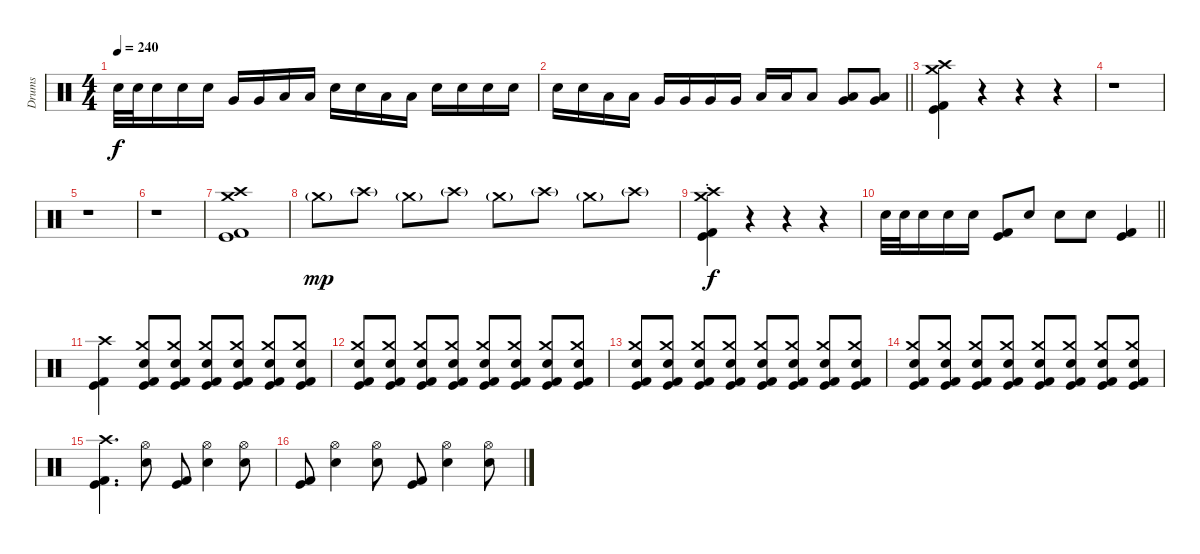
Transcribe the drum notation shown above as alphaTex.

\track ("Drums" "Drums") {instrument percussion}
\staff {score}
\articulation defaults
\ts (4 4)
\tempo 240
\clef neutral
\ks c "Electric Snare (hit)".32{dy f} "Electric Snare (hit)".32 "Electric Snare (hit)".16 "Electric Snare (hit)".16 "Electric Snare (hit)".16 "Very Low Tom (hit)".16 "Very Low Tom (hit)".16 "Low Tom (hit)".16 "Low Tom (hit)".16 "Electric Snare (hit)".16 "Electric Snare (hit)".16 "Low Tom (hit)".16 "Low Tom (hit)".16 "Electric Snare (hit)".16 "Electric Snare (hit)".16 "Electric Snare (hit)".16 "Electric Snare (hit)".16
|
\barLineRight lightlight "Electric Snare (hit)".16 "Electric Snare (hit)".16 "Low Tom (hit)".16 "Low Tom (hit)".16 "Very Low Tom (hit)".16 "Very Low Tom (hit)".16 "Very Low Tom (hit)".16 "Very Low Tom (hit)".16 "Low Tom (hit)".16 "Low Tom (hit)".16 "Low Floor Tom (hit)".8
("Very Low Tom (hit)" "Low Floor Tom (hit)").8 ("Very Low Tom (hit)" "Low Floor Tom (hit)").8 |
\section ("" "")
("Crash medium (hit)" "Crash high (hit)" "Kick (hit)" "Kick (hit) 2").4 r.4{volume 0} r.4 r.4 |
r.1{volume 16} |
r.1 |
r.1 |
("Crash high (hit)" "Crash medium (hit)" "Kick (hit)" "Kick (hit) 2").1 |
"Crash medium (hit)"{g}.8{dy mp} "Crash high (hit)"{g}.8 "Crash medium (hit)"{g}.8 "Crash high (hit)"{g}.8 "Crash medium (hit)"{g}.8 "Crash high (hit)"{g}.8 "Crash medium (hit)"{g}.8 "Crash high (hit)"{g}.8 |
("Crash high (hit)"{st} "Crash medium (hit)"{st} "Kick (hit)" "Kick (hit) 2").4{dy f} r.4{volume 0} r.4 r.4 |
\barLineRight lightlight "Electric Snare (hit)".32{volume 16} "Electric Snare (hit)".32 "Electric Snare (hit)".16 "Electric Snare (hit)".16 "Electric Snare (hit)".16
("Kick (hit)" "Kick (hit) 2").8 "Electric Snare (hit)".8 "Electric Snare (hit)".8 "Electric Snare (hit)".8 ("Kick (hit)" "Kick (hit) 2").4 |
\section ("" "")
("Crash high (hit)" "Kick (hit)" "Kick (hit) 2").4 ("Crash medium (hit)" "Electric Snare (hit)" "Kick (hit)" "Kick (hit) 2").8 ("Crash medium (hit)" "Electric Snare (hit)" "Kick (hit)" "Kick (hit) 2").8 ("Crash medium (hit)" "Electric Snare (hit)" "Kick (hit)" "Kick (hit) 2").8 ("Crash medium (hit)" "Electric Snare (hit)" "Kick (hit)" "Kick (hit) 2").8 ("Crash medium (hit)" "Electric Snare (hit)" "Kick (hit)" "Kick (hit) 2").8 ("Crash medium (hit)" "Electric Snare (hit)" "Kick (hit)" "Kick (hit) 2").8 |
("Crash medium (hit)" "Electric Snare (hit)" "Kick (hit)" "Kick (hit) 2").8 ("Crash medium (hit)" "Electric Snare (hit)" "Kick (hit)" "Kick (hit) 2").8 ("Crash medium (hit)" "Electric Snare (hit)" "Kick (hit)" "Kick (hit) 2").8 ("Crash medium (hit)" "Electric Snare (hit)" "Kick (hit)" "Kick (hit) 2").8 ("Crash medium (hit)" "Electric Snare (hit)" "Kick (hit)" "Kick (hit) 2").8 ("Crash medium (hit)" "Electric Snare (hit)" "Kick (hit)" "Kick (hit) 2").8 ("Crash medium (hit)" "Electric Snare (hit)" "Kick (hit)" "Kick (hit) 2").8 ("Crash medium (hit)" "Electric Snare (hit)" "Kick (hit)" "Kick (hit) 2").8 |
("Crash medium (hit)" "Electric Snare (hit)" "Kick (hit)" "Kick (hit) 2").8 ("Crash medium (hit)" "Electric Snare (hit)" "Kick (hit)" "Kick (hit) 2").8 ("Crash medium (hit)" "Electric Snare (hit)" "Kick (hit)" "Kick (hit) 2").8 ("Crash medium (hit)" "Electric Snare (hit)" "Kick (hit)" "Kick (hit) 2").8 ("Crash medium (hit)" "Electric Snare (hit)" "Kick (hit)" "Kick (hit) 2").8 ("Crash medium (hit)" "Electric Snare (hit)" "Kick (hit)" "Kick (hit) 2").8 ("Crash medium (hit)" "Electric Snare (hit)" "Kick (hit)" "Kick (hit) 2").8 ("Crash medium (hit)" "Electric Snare (hit)" "Kick (hit)" "Kick (hit) 2").8 |
("Crash medium (hit)" "Electric Snare (hit)" "Kick (hit)" "Kick (hit) 2").8 ("Crash medium (hit)" "Electric Snare (hit)" "Kick (hit)" "Kick (hit) 2").8 ("Crash medium (hit)" "Electric Snare (hit)" "Kick (hit)" "Kick (hit) 2").8 ("Crash medium (hit)" "Electric Snare (hit)" "Kick (hit)" "Kick (hit) 2").8 ("Crash medium (hit)" "Electric Snare (hit)" "Kick (hit)" "Kick (hit) 2").8 ("Crash medium (hit)" "Electric Snare (hit)" "Kick (hit)" "Kick (hit) 2").8 ("Crash medium (hit)" "Electric Snare (hit)" "Kick (hit)" "Kick (hit) 2").8 ("Crash medium (hit)" "Electric Snare (hit)" "Kick (hit)" "Kick (hit) 2").8 |
("Crash high (hit)" "Kick (hit)" "Kick (hit) 2").4{d} ("Hi-Hat (open)" "Electric Snare (hit)").8 ("Kick (hit)" "Kick (hit) 2").8 ("Hi-Hat (open)" "Electric Snare (hit)").4 ("Hi-Hat (open)" "Electric Snare (hit)").8 |
("Kick (hit)" "Kick (hit) 2").8 ("Hi-Hat (open)" "Electric Snare (hit)").4 ("Hi-Hat (open)" "Electric Snare (hit)").8 ("Kick (hit)" "Kick (hit) 2").8 ("Hi-Hat (open)" "Electric Snare (hit)").4 ("Hi-Hat (open)" "Electric Snare (hit)").8
